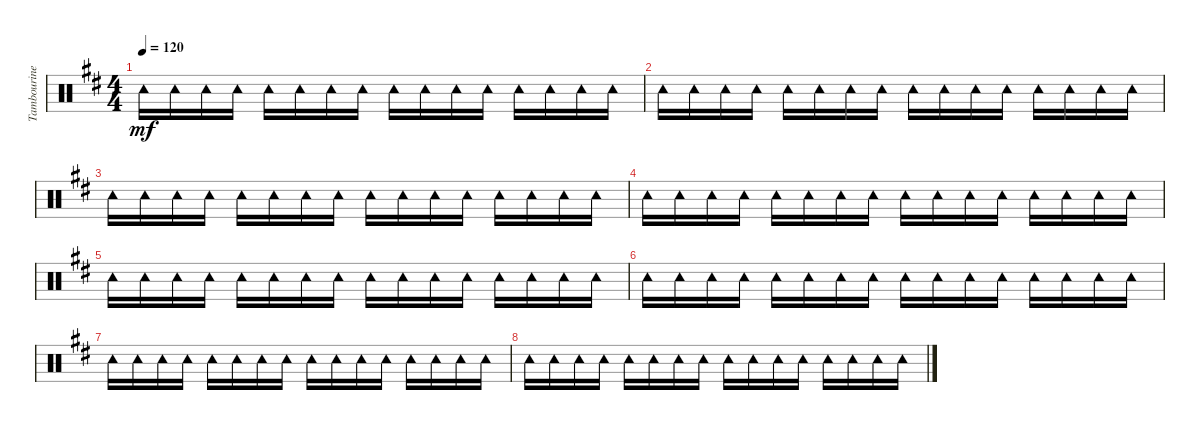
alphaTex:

\track ("Tambourine" "Tambourine") {instrument percussion}
\staff {score}
\articulation defaults
\ts (4 4)
\tempo 120
\clef neutral
\ks d "Tambourine (hit)".16{dy mf} "Tambourine (hit)".16 "Tambourine (hit)".16 "Tambourine (hit)".16 "Tambourine (hit)".16 "Tambourine (hit)".16 "Tambourine (hit)".16 "Tambourine (hit)".16 "Tambourine (hit)".16 "Tambourine (hit)".16 "Tambourine (hit)".16 "Tambourine (hit)".16 "Tambourine (hit)".16 "Tambourine (hit)".16 "Tambourine (hit)".16 "Tambourine (hit)".16
|
"Tambourine (hit)".16 "Tambourine (hit)".16 "Tambourine (hit)".16 "Tambourine (hit)".16 "Tambourine (hit)".16 "Tambourine (hit)".16 "Tambourine (hit)".16 "Tambourine (hit)".16 "Tambourine (hit)".16 "Tambourine (hit)".16 "Tambourine (hit)".16 "Tambourine (hit)".16 "Tambourine (hit)".16 "Tambourine (hit)".16 "Tambourine (hit)".16 "Tambourine (hit)".16 |
"Tambourine (hit)".16 "Tambourine (hit)".16 "Tambourine (hit)".16 "Tambourine (hit)".16 "Tambourine (hit)".16 "Tambourine (hit)".16 "Tambourine (hit)".16 "Tambourine (hit)".16 "Tambourine (hit)".16 "Tambourine (hit)".16 "Tambourine (hit)".16 "Tambourine (hit)".16 "Tambourine (hit)".16 "Tambourine (hit)".16 "Tambourine (hit)".16 "Tambourine (hit)".16 |
"Tambourine (hit)".16 "Tambourine (hit)".16 "Tambourine (hit)".16 "Tambourine (hit)".16 "Tambourine (hit)".16 "Tambourine (hit)".16 "Tambourine (hit)".16 "Tambourine (hit)".16 "Tambourine (hit)".16 "Tambourine (hit)".16 "Tambourine (hit)".16 "Tambourine (hit)".16 "Tambourine (hit)".16 "Tambourine (hit)".16 "Tambourine (hit)".16 "Tambourine (hit)".16 |
"Tambourine (hit)".16 "Tambourine (hit)".16 "Tambourine (hit)".16 "Tambourine (hit)".16 "Tambourine (hit)".16 "Tambourine (hit)".16 "Tambourine (hit)".16 "Tambourine (hit)".16 "Tambourine (hit)".16 "Tambourine (hit)".16 "Tambourine (hit)".16 "Tambourine (hit)".16 "Tambourine (hit)".16 "Tambourine (hit)".16 "Tambourine (hit)".16 "Tambourine (hit)".16 |
"Tambourine (hit)".16 "Tambourine (hit)".16 "Tambourine (hit)".16 "Tambourine (hit)".16 "Tambourine (hit)".16 "Tambourine (hit)".16 "Tambourine (hit)".16 "Tambourine (hit)".16 "Tambourine (hit)".16 "Tambourine (hit)".16 "Tambourine (hit)".16 "Tambourine (hit)".16 "Tambourine (hit)".16 "Tambourine (hit)".16 "Tambourine (hit)".16 "Tambourine (hit)".16 |
"Tambourine (hit)".16 "Tambourine (hit)".16 "Tambourine (hit)".16 "Tambourine (hit)".16 "Tambourine (hit)".16 "Tambourine (hit)".16 "Tambourine (hit)".16 "Tambourine (hit)".16 "Tambourine (hit)".16 "Tambourine (hit)".16 "Tambourine (hit)".16 "Tambourine (hit)".16 "Tambourine (hit)".16 "Tambourine (hit)".16 "Tambourine (hit)".16 "Tambourine (hit)".16 |
"Tambourine (hit)".16 "Tambourine (hit)".16 "Tambourine (hit)".16 "Tambourine (hit)".16 "Tambourine (hit)".16 "Tambourine (hit)".16 "Tambourine (hit)".16 "Tambourine (hit)".16 "Tambourine (hit)".16 "Tambourine (hit)".16 "Tambourine (hit)".16 "Tambourine (hit)".16 "Tambourine (hit)".16 "Tambourine (hit)".16 "Tambourine (hit)".16 "Tambourine (hit)".16
